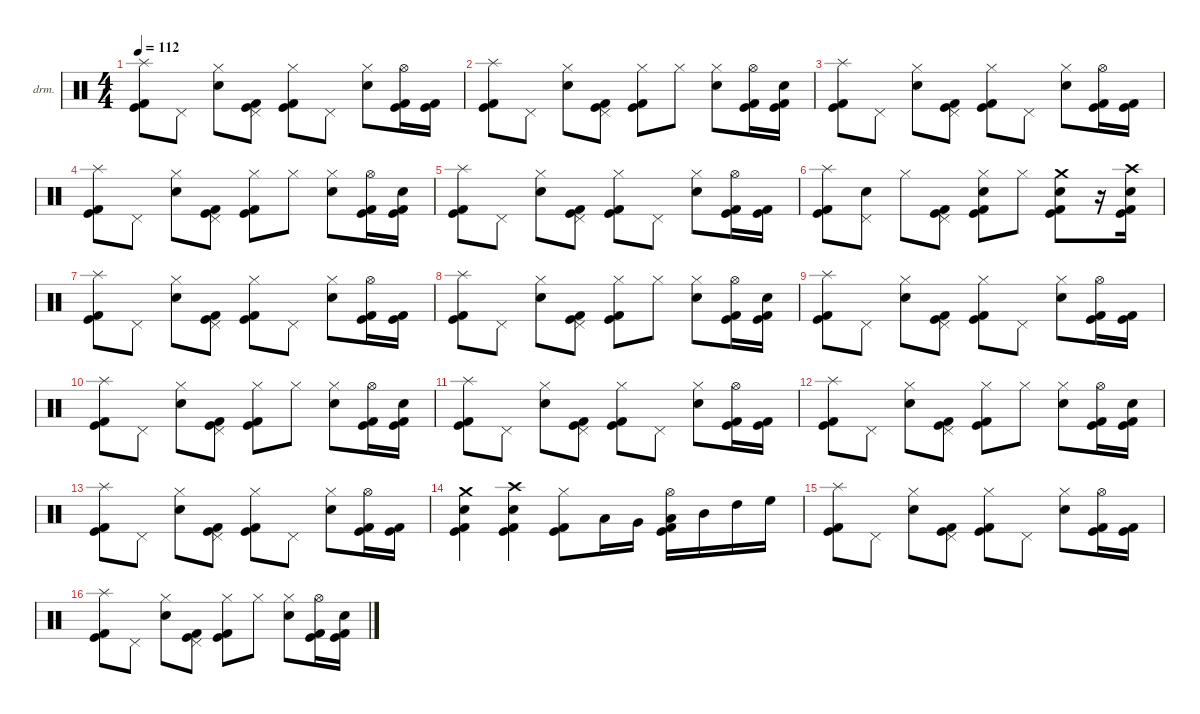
\defaultSystemsLayout 4
\hideDynamics
\bracketExtendMode nobrackets
\firstSystemTrackNameOrientation horizontal
\otherSystemsTrackNameOrientation horizontal
\track ("Drums" "drm.") {instrument percussion}
\staff {score}
\articulation defaults
\ts (4 4)
\tempo 112
\clef neutral
\ks c
("Splash (hit)" "Kick (hit) 2" "Kick (hit)").8{dy f} "Pedal Hi-Hat (hit)".8{dy ff} ("Hi-Hat (closed)" "Snare (hit) 2").8{dy f} ("Pedal Hi-Hat (hit)" "Kick (hit)" "Kick (hit) 2").8{dy ff} ("Hi-Hat (closed)" "Kick (hit)" "Kick (hit) 2").8{dy f} "Pedal Hi-Hat (hit)".8{dy ff} ("Hi-Hat (closed)" "Snare (hit) 2").8{dy f} ("Hi-Hat (open)" "Kick (hit) 2" "Kick (hit)").16 ("Kick (hit) 2" "Kick (hit)").16 |
("Splash (hit)" "Kick (hit) 2" "Kick (hit)").8 "Pedal Hi-Hat (hit)".8{dy ff} ("Hi-Hat (closed)" "Snare (hit) 2").8{dy f} ("Pedal Hi-Hat (hit)" "Kick (hit)" "Kick (hit) 2").8{dy ff} ("Hi-Hat (closed)" "Kick (hit)" "Kick (hit) 2").8{dy f} "Hi-Hat (closed)".8{dy ff} ("Hi-Hat (closed)" "Snare (hit) 2").8{dy f} ("Hi-Hat (open)" "Kick (hit) 2" "Kick (hit)").16 ("Snare (hit) 2" "Kick (hit) 2" "Kick (hit)").16 |
("Splash (hit)" "Kick (hit) 2" "Kick (hit)").8 "Pedal Hi-Hat (hit)".8{dy ff} ("Hi-Hat (closed)" "Snare (hit) 2").8{dy f} ("Pedal Hi-Hat (hit)" "Kick (hit)" "Kick (hit) 2").8{dy ff} ("Hi-Hat (closed)" "Kick (hit)" "Kick (hit) 2").8{dy f} "Pedal Hi-Hat (hit)".8{dy ff} ("Hi-Hat (closed)" "Snare (hit) 2").8{dy f} ("Hi-Hat (open)" "Kick (hit) 2" "Kick (hit)").16 ("Kick (hit) 2" "Kick (hit)").16 |
("Splash (hit)" "Kick (hit) 2" "Kick (hit)").8 "Pedal Hi-Hat (hit)".8{dy ff} ("Hi-Hat (closed)" "Snare (hit) 2").8{dy f} ("Pedal Hi-Hat (hit)" "Kick (hit)" "Kick (hit) 2").8{dy ff} ("Hi-Hat (closed)" "Kick (hit)" "Kick (hit) 2").8{dy f} "Hi-Hat (closed)".8{dy ff} ("Hi-Hat (closed)" "Snare (hit) 2").8{dy f} ("Hi-Hat (open)" "Kick (hit) 2" "Kick (hit)").16 ("Snare (hit) 2" "Kick (hit) 2" "Kick (hit)").16 |
("Splash (hit)" "Kick (hit) 2" "Kick (hit)").8 "Pedal Hi-Hat (hit)".8{dy ff} ("Hi-Hat (closed)" "Snare (hit) 2").8{dy f} ("Pedal Hi-Hat (hit)" "Kick (hit)" "Kick (hit) 2").8{dy ff} ("Hi-Hat (closed)" "Kick (hit)" "Kick (hit) 2").8{dy f} "Pedal Hi-Hat (hit)".8{dy ff} ("Hi-Hat (closed)" "Snare (hit) 2").8{dy f} ("Hi-Hat (open)" "Kick (hit) 2" "Kick (hit)").16 ("Kick (hit) 2" "Kick (hit)").16 |
("Splash (hit)" "Kick (hit) 2" "Kick (hit)").8 ("Pedal Hi-Hat (hit)" "Snare (hit) 2").8{dy ff} "Hi-Hat (closed)".8{dy f} ("Pedal Hi-Hat (hit)" "Kick (hit)" "Kick (hit) 2").8{dy ff} ("Hi-Hat (closed)" "Snare (hit) 2" "Kick (hit)" "Kick (hit) 2").8{dy f} "Hi-Hat (closed)".8{dy ff} ("Crash medium (hit)" "Snare (hit) 2" "Kick (hit) 2" "Kick (hit)").8{dy f} r.16 ("Crash high (hit)" "Snare (hit) 2" "Kick (hit) 2" "Kick (hit)").16 |
("Splash (hit)" "Kick (hit) 2" "Kick (hit)").8 "Pedal Hi-Hat (hit)".8{dy ff} ("Hi-Hat (closed)" "Snare (hit) 2").8{dy f} ("Pedal Hi-Hat (hit)" "Kick (hit)" "Kick (hit) 2").8{dy ff} ("Hi-Hat (closed)" "Kick (hit)" "Kick (hit) 2").8{dy f} "Pedal Hi-Hat (hit)".8{dy ff} ("Hi-Hat (closed)" "Snare (hit) 2").8{dy f} ("Hi-Hat (open)" "Kick (hit) 2" "Kick (hit)").16 ("Kick (hit) 2" "Kick (hit)").16 |
("Splash (hit)" "Kick (hit) 2" "Kick (hit)").8 "Pedal Hi-Hat (hit)".8{dy ff} ("Hi-Hat (closed)" "Snare (hit) 2").8{dy f} ("Pedal Hi-Hat (hit)" "Kick (hit)" "Kick (hit) 2").8{dy ff} ("Hi-Hat (closed)" "Kick (hit)" "Kick (hit) 2").8{dy f} "Hi-Hat (closed)".8{dy ff} ("Hi-Hat (closed)" "Snare (hit) 2").8{dy f} ("Hi-Hat (open)" "Kick (hit) 2" "Kick (hit)").16 ("Snare (hit) 2" "Kick (hit) 2" "Kick (hit)").16 |
("Splash (hit)" "Kick (hit) 2" "Kick (hit)").8 "Pedal Hi-Hat (hit)".8{dy ff} ("Hi-Hat (closed)" "Snare (hit) 2").8{dy f} ("Pedal Hi-Hat (hit)" "Kick (hit)" "Kick (hit) 2").8{dy ff} ("Hi-Hat (closed)" "Kick (hit)" "Kick (hit) 2").8{dy f} "Pedal Hi-Hat (hit)".8{dy ff} ("Hi-Hat (closed)" "Snare (hit) 2").8{dy f} ("Hi-Hat (open)" "Kick (hit) 2" "Kick (hit)").16 ("Kick (hit) 2" "Kick (hit)").16 |
("Splash (hit)" "Kick (hit) 2" "Kick (hit)").8 "Pedal Hi-Hat (hit)".8{dy ff} ("Hi-Hat (closed)" "Snare (hit) 2").8{dy f} ("Pedal Hi-Hat (hit)" "Kick (hit)" "Kick (hit) 2").8{dy ff} ("Hi-Hat (closed)" "Kick (hit)" "Kick (hit) 2").8{dy f} "Hi-Hat (closed)".8{dy ff} ("Hi-Hat (closed)" "Snare (hit) 2").8{dy f} ("Hi-Hat (open)" "Kick (hit) 2" "Kick (hit)").16 ("Snare (hit) 2" "Kick (hit) 2" "Kick (hit)").16 |
("Splash (hit)" "Kick (hit) 2" "Kick (hit)").8 "Pedal Hi-Hat (hit)".8{dy ff} ("Hi-Hat (closed)" "Snare (hit) 2").8{dy f} ("Pedal Hi-Hat (hit)" "Kick (hit)" "Kick (hit) 2").8{dy ff} ("Hi-Hat (closed)" "Kick (hit)" "Kick (hit) 2").8{dy f} "Pedal Hi-Hat (hit)".8{dy ff} ("Hi-Hat (closed)" "Snare (hit) 2").8{dy f} ("Hi-Hat (open)" "Kick (hit) 2" "Kick (hit)").16 ("Kick (hit) 2" "Kick (hit)").16 |
("Splash (hit)" "Kick (hit) 2" "Kick (hit)").8 "Pedal Hi-Hat (hit)".8{dy ff} ("Hi-Hat (closed)" "Snare (hit) 2").8{dy f} ("Pedal Hi-Hat (hit)" "Kick (hit)" "Kick (hit) 2").8{dy ff} ("Hi-Hat (closed)" "Kick (hit)" "Kick (hit) 2").8{dy f} "Hi-Hat (closed)".8{dy ff} ("Hi-Hat (closed)" "Snare (hit) 2").8{dy f} ("Hi-Hat (open)" "Kick (hit) 2" "Kick (hit)").16 ("Snare (hit) 2" "Kick (hit) 2" "Kick (hit)").16 |
("Splash (hit)" "Kick (hit) 2" "Kick (hit)").8 "Pedal Hi-Hat (hit)".8{dy ff} ("Hi-Hat (closed)" "Snare (hit) 2").8{dy f} ("Pedal Hi-Hat (hit)" "Kick (hit)" "Kick (hit) 2").8{dy ff} ("Hi-Hat (closed)" "Kick (hit)" "Kick (hit) 2").8{dy f} "Pedal Hi-Hat (hit)".8{dy ff} ("Hi-Hat (closed)" "Snare (hit) 2").8{dy f} ("Hi-Hat (open)" "Kick (hit) 2" "Kick (hit)").16 ("Kick (hit) 2" "Kick (hit)").16 |
("Crash medium (hit)" "Snare (hit) 2" "Kick (hit) 2" "Kick (hit)").4 ("Crash high (hit)" "Snare (hit) 2" "Kick (hit) 2" "Kick (hit)").4 ("Hi-Hat (closed)" "Kick (hit) 2" "Kick (hit)").8 "Low Tom (hit)".16 "Very Low Tom (hit)".16 ("Hi-Hat (open)" "Low Floor Tom (hit)" "Kick (hit) 2" "Kick (hit)").16 "Mid Tom (hit)".16 "High Tom (hit)".16 "High Floor Tom (hit)".16 |
("Splash (hit)" "Kick (hit) 2" "Kick (hit)").8 "Pedal Hi-Hat (hit)".8{dy ff} ("Hi-Hat (closed)" "Snare (hit) 2").8{dy f} ("Pedal Hi-Hat (hit)" "Kick (hit)" "Kick (hit) 2").8{dy ff} ("Hi-Hat (closed)" "Kick (hit)" "Kick (hit) 2").8{dy f} "Pedal Hi-Hat (hit)".8{dy ff} ("Hi-Hat (closed)" "Snare (hit) 2").8{dy f} ("Hi-Hat (open)" "Kick (hit) 2" "Kick (hit)").16 ("Kick (hit) 2" "Kick (hit)").16 |
("Splash (hit)" "Kick (hit) 2" "Kick (hit)").8 "Pedal Hi-Hat (hit)".8{dy ff} ("Hi-Hat (closed)" "Snare (hit) 2").8{dy f} ("Pedal Hi-Hat (hit)" "Kick (hit)" "Kick (hit) 2").8{dy ff} ("Hi-Hat (closed)" "Kick (hit)" "Kick (hit) 2").8{dy f} "Hi-Hat (closed)".8{dy ff} ("Hi-Hat (closed)" "Snare (hit) 2").8{dy f} ("Hi-Hat (open)" "Kick (hit) 2" "Kick (hit)").16 ("Snare (hit) 2" "Kick (hit) 2" "Kick (hit)").16
